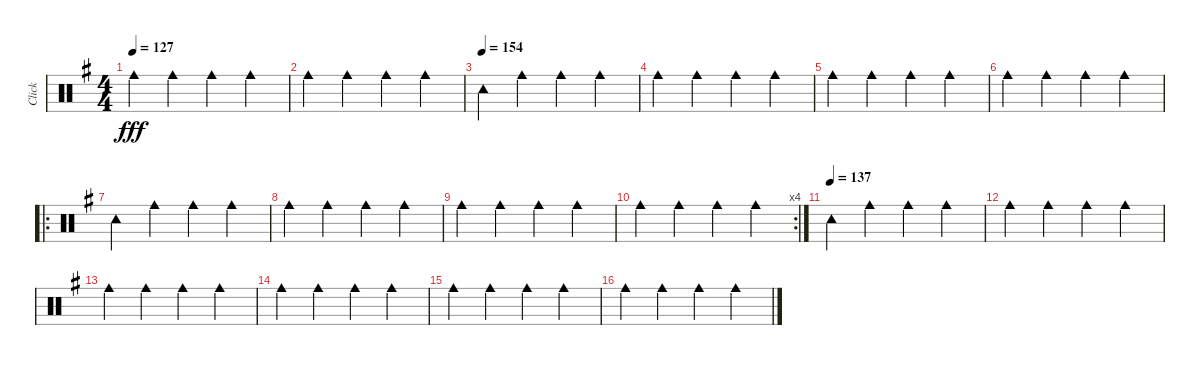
\track ("Click" "Click") {mute instrument percussion}
\staff {score}
\articulation defaults
\ts (4 4)
\tempo 127
\clef neutral
\ks g "Cowbell medium (hit)".4{dy fff} "Cowbell medium (hit)".4 "Cowbell medium (hit)".4 "Cowbell medium (hit)".4
|
"Cowbell medium (hit)".4 "Cowbell medium (hit)".4 "Cowbell medium (hit)".4 "Cowbell medium (hit)".4 |
\tempo (154)
"Tambourine (hit)".4 "Cowbell medium (hit)".4 "Cowbell medium (hit)".4 "Cowbell medium (hit)".4 |
"Cowbell medium (hit)".4 "Cowbell medium (hit)".4 "Cowbell medium (hit)".4 "Cowbell medium (hit)".4 |
"Cowbell medium (hit)".4 "Cowbell medium (hit)".4 "Cowbell medium (hit)".4 "Cowbell medium (hit)".4 |
"Cowbell medium (hit)".4 "Cowbell medium (hit)".4 "Cowbell medium (hit)".4 "Cowbell medium (hit)".4 |
\ro "Tambourine (hit)".4 "Cowbell medium (hit)".4 "Cowbell medium (hit)".4 "Cowbell medium (hit)".4
|
"Cowbell medium (hit)".4 "Cowbell medium (hit)".4 "Cowbell medium (hit)".4 "Cowbell medium (hit)".4 |
"Cowbell medium (hit)".4 "Cowbell medium (hit)".4 "Cowbell medium (hit)".4 "Cowbell medium (hit)".4 |
\rc 4 "Cowbell medium (hit)".4 "Cowbell medium (hit)".4 "Cowbell medium (hit)".4 "Cowbell medium (hit)".4
|
\tempo (137)
"Tambourine (hit)".4 "Cowbell medium (hit)".4 "Cowbell medium (hit)".4 "Cowbell medium (hit)".4 |
"Cowbell medium (hit)".4 "Cowbell medium (hit)".4 "Cowbell medium (hit)".4 "Cowbell medium (hit)".4 |
"Cowbell medium (hit)".4 "Cowbell medium (hit)".4 "Cowbell medium (hit)".4 "Cowbell medium (hit)".4 |
"Cowbell medium (hit)".4 "Cowbell medium (hit)".4 "Cowbell medium (hit)".4 "Cowbell medium (hit)".4 |
"Cowbell medium (hit)".4 "Cowbell medium (hit)".4 "Cowbell medium (hit)".4 "Cowbell medium (hit)".4 |
"Cowbell medium (hit)".4 "Cowbell medium (hit)".4 "Cowbell medium (hit)".4 "Cowbell medium (hit)".4
